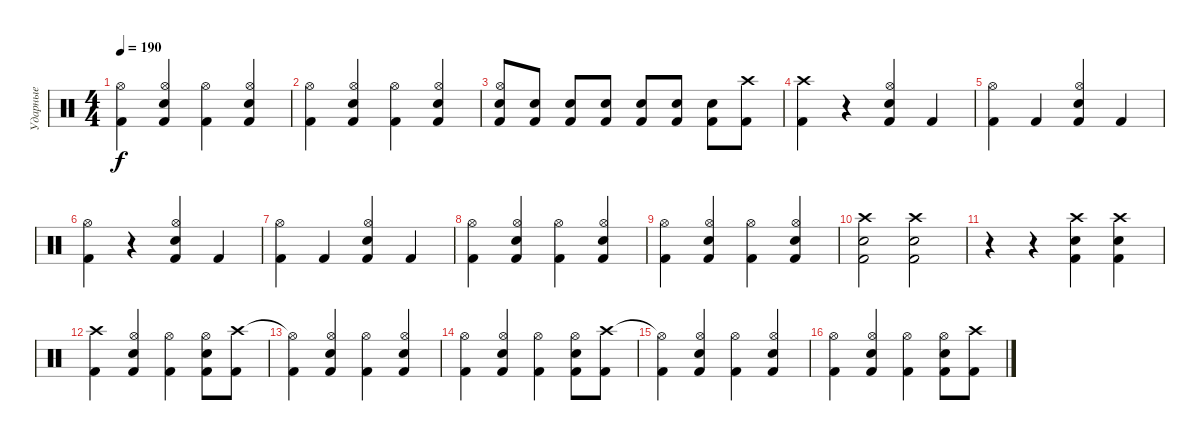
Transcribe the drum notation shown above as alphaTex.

\track ("Ударные" "Ударные") {instrument percussion}
\staff
\articulation defaults
\ts (4 4)
\tempo 190
\clef neutral
\ks c
("Kick (hit) 2" "Hi-Hat (open)").4{dy f} ("Kick (hit) 2" "Snare (hit) 2" "Hi-Hat (open)").4 ("Kick (hit) 2" "Hi-Hat (open)").4 ("Kick (hit) 2" "Snare (hit) 2" "Hi-Hat (open)").4 |
("Kick (hit) 2" "Hi-Hat (open)").4 ("Kick (hit) 2" "Snare (hit) 2" "Hi-Hat (open)").4 ("Kick (hit) 2" "Hi-Hat (open)").4 ("Kick (hit) 2" "Snare (hit) 2" "Hi-Hat (open)").4 |
("Kick (hit) 2" "Snare (hit) 2" "Hi-Hat (open)").8 ("Kick (hit) 2" "Snare (hit) 2").8 ("Kick (hit) 2" "Snare (hit) 2").8 ("Kick (hit) 2" "Snare (hit) 2").8 ("Kick (hit) 2" "Snare (hit) 2").8 ("Kick (hit) 2" "Snare (hit) 2").8 ("Kick (hit) 2" "Snare (hit) 2").8 ("Kick (hit) 2" "Crash high (hit)").8 |
("Kick (hit) 2" "Crash high (hit)").4 r.4 ("Kick (hit) 2" "Snare (hit) 2" "Hi-Hat (open)").4 "Kick (hit) 2".4 |
("Kick (hit) 2" "Hi-Hat (open)").4 "Kick (hit) 2".4 ("Kick (hit) 2" "Snare (hit) 2" "Hi-Hat (open)").4 "Kick (hit) 2".4 |
("Kick (hit) 2" "Hi-Hat (open)").4 r.4 ("Kick (hit) 2" "Snare (hit) 2" "Hi-Hat (open)").4 "Kick (hit) 2".4 |
("Kick (hit) 2" "Hi-Hat (open)").4 "Kick (hit) 2".4 ("Kick (hit) 2" "Snare (hit) 2" "Hi-Hat (open)").4 "Kick (hit) 2".4 |
("Kick (hit) 2" "Hi-Hat (open)").4 ("Kick (hit) 2" "Snare (hit) 2" "Hi-Hat (open)").4 ("Kick (hit) 2" "Hi-Hat (open)").4 ("Kick (hit) 2" "Snare (hit) 2" "Hi-Hat (open)").4 |
("Kick (hit) 2" "Hi-Hat (open)").4 ("Kick (hit) 2" "Snare (hit) 2" "Hi-Hat (open)").4 ("Kick (hit) 2" "Hi-Hat (open)").4 ("Kick (hit) 2" "Snare (hit) 2" "Hi-Hat (open)").4 |
("Kick (hit) 2" "Snare (hit) 2" "Crash high (hit)").2 ("Kick (hit) 2" "Snare (hit) 2" "Crash high (hit)").2 |
r.4 r.4 ("Kick (hit) 2" "Snare (hit) 2" "Crash high (hit)").4 ("Kick (hit) 2" "Snare (hit) 2" "Crash high (hit)").4 |
("Kick (hit) 2" "Crash high (hit)").4 ("Kick (hit) 2" "Snare (hit) 2" "Hi-Hat (open)").4 ("Kick (hit) 2" "Hi-Hat (open)").4 ("Kick (hit) 2" "Snare (hit) 2" "Hi-Hat (open)").8 ("Kick (hit) 2" "Crash high (hit)").8 |
("Kick (hit) 2" "Hi-Hat (open)"{t}).4 ("Kick (hit) 2" "Snare (hit) 2" "Hi-Hat (open)").4 ("Kick (hit) 2" "Hi-Hat (open)").4 ("Kick (hit) 2" "Snare (hit) 2" "Hi-Hat (open)").4 |
("Kick (hit) 2" "Hi-Hat (open)").4 ("Kick (hit) 2" "Snare (hit) 2" "Hi-Hat (open)").4 ("Kick (hit) 2" "Hi-Hat (open)").4 ("Kick (hit) 2" "Snare (hit) 2" "Hi-Hat (open)").8 ("Kick (hit) 2" "Crash high (hit)").8 |
("Kick (hit) 2" "Hi-Hat (open)"{t}).4 ("Kick (hit) 2" "Snare (hit) 2" "Hi-Hat (open)").4 ("Kick (hit) 2" "Hi-Hat (open)").4 ("Kick (hit) 2" "Snare (hit) 2" "Hi-Hat (open)").4 |
("Kick (hit) 2" "Hi-Hat (open)").4 ("Kick (hit) 2" "Snare (hit) 2" "Hi-Hat (open)").4 ("Kick (hit) 2" "Hi-Hat (open)").4 ("Kick (hit) 2" "Snare (hit) 2" "Hi-Hat (open)").8 ("Kick (hit) 2" "Crash high (hit)").8
